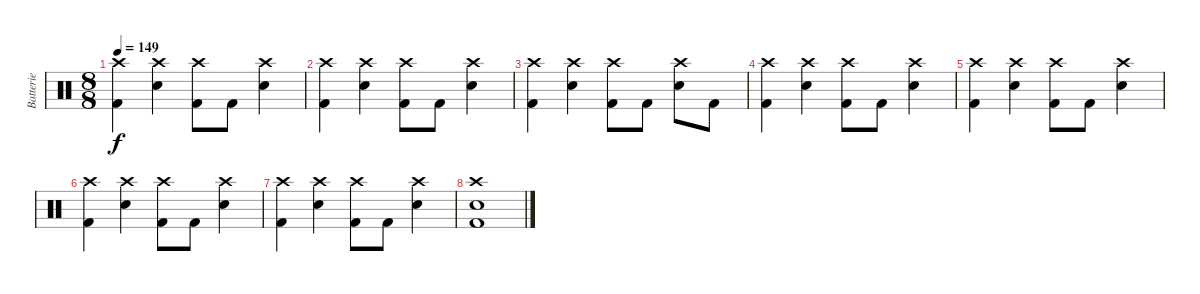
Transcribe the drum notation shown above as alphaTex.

\track ("Batterie" "Batterie") {instrument percussion}
\staff {score}
\articulation defaults
\ts (8 8)
\tempo 149
\clef neutral
\ks c
("Crash high (hit)" "Kick (hit) 2").4{dy f} ("Crash high (hit)" "Snare (hit) 2").4 ("Crash high (hit)" "Kick (hit) 2").8 "Kick (hit) 2".8 ("Crash high (hit)" "Snare (hit) 2").4 |
("Crash high (hit)" "Kick (hit) 2").4 ("Crash high (hit)" "Snare (hit) 2").4 ("Crash high (hit)" "Kick (hit) 2").8 "Kick (hit) 2".8 ("Crash high (hit)" "Snare (hit) 2").4 |
("Crash high (hit)" "Kick (hit) 2").4 ("Crash high (hit)" "Snare (hit) 2").4 ("Crash high (hit)" "Kick (hit) 2").8 "Kick (hit) 2".8 ("Crash high (hit)" "Snare (hit) 2").8 "Kick (hit) 2".8 |
("Crash high (hit)" "Kick (hit) 2").4 ("Crash high (hit)" "Snare (hit) 2").4 ("Crash high (hit)" "Kick (hit) 2").8 "Kick (hit) 2".8 ("Crash high (hit)" "Snare (hit) 2").4 |
("Crash high (hit)" "Kick (hit) 2").4 ("Crash high (hit)" "Snare (hit) 2").4 ("Crash high (hit)" "Kick (hit) 2").8 "Kick (hit) 2".8 ("Crash high (hit)" "Snare (hit) 2").4 |
("Crash high (hit)" "Kick (hit) 2").4 ("Crash high (hit)" "Snare (hit) 2").4 ("Crash high (hit)" "Kick (hit) 2").8 "Kick (hit) 2".8 ("Crash high (hit)" "Snare (hit) 2").4 |
("Crash high (hit)" "Kick (hit) 2").4 ("Crash high (hit)" "Snare (hit) 2").4 ("Crash high (hit)" "Kick (hit) 2").8 "Kick (hit) 2".8 ("Crash high (hit)" "Snare (hit) 2").4 |
("Crash high (hit)" "Snare (hit) 2" "Kick (hit) 2").1
